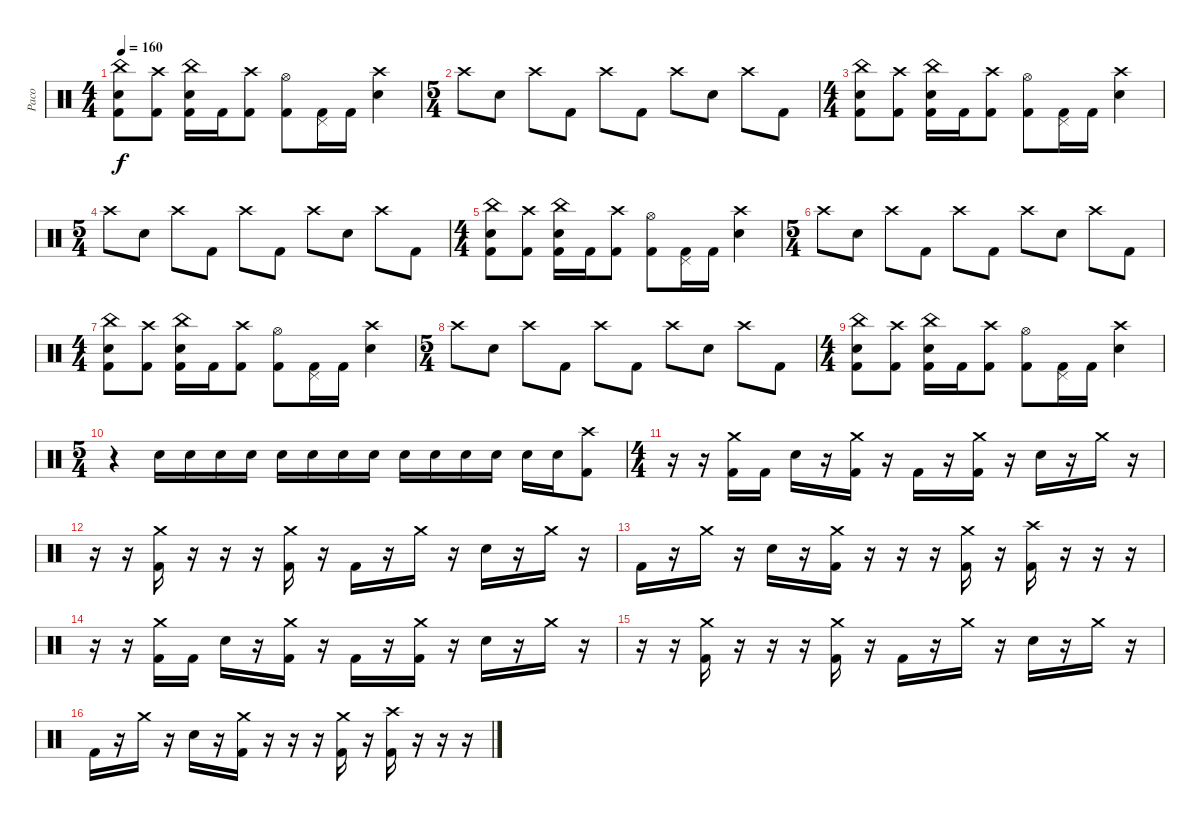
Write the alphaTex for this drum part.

\track ("Paco" "Paco") {instrument percussion}
\staff {score}
\articulation defaults
\ts (4 4)
\tempo 160
\clef neutral
\ks c
("China (hit)" "Electric Snare (hit)" "Kick (hit) 2").8{dy f} ("Crash high (hit)" "Kick (hit) 2").8 ("China (hit)" "Electric Snare (hit)" "Kick (hit) 2").16 "Kick (hit) 2".16 ("Crash high (hit)" "Kick (hit) 2").8 ("Hi-Hat (open)" "Kick (hit) 2").8 ("Pedal Hi-Hat (hit)" "Kick (hit) 2").16 "Kick (hit) 2".16 ("Crash high (hit)" "Electric Snare (hit)").4 |
\ts (5 4)
"Crash high (hit)".8 "Electric Snare (hit)".8 "Crash high (hit)".8 "Kick (hit) 2".8 "Crash high (hit)".8 "Kick (hit) 2".8 "Crash high (hit)".8 "Electric Snare (hit)".8 "Crash high (hit)".8 "Kick (hit) 2".8 |
\ts (4 4)
("China (hit)" "Electric Snare (hit)" "Kick (hit) 2").8 ("Crash high (hit)" "Kick (hit) 2").8 ("China (hit)" "Electric Snare (hit)" "Kick (hit) 2").16 "Kick (hit) 2".16 ("Crash high (hit)" "Kick (hit) 2").8 ("Hi-Hat (open)" "Kick (hit) 2").8 ("Pedal Hi-Hat (hit)" "Kick (hit) 2").16 "Kick (hit) 2".16 ("Crash high (hit)" "Electric Snare (hit)").4 |
\ts (5 4)
"Crash high (hit)".8 "Electric Snare (hit)".8 "Crash high (hit)".8 "Kick (hit) 2".8 "Crash high (hit)".8 "Kick (hit) 2".8 "Crash high (hit)".8 "Electric Snare (hit)".8 "Crash high (hit)".8 "Kick (hit) 2".8 |
\ts (4 4)
("China (hit)" "Electric Snare (hit)" "Kick (hit) 2").8 ("Crash high (hit)" "Kick (hit) 2").8 ("China (hit)" "Electric Snare (hit)" "Kick (hit) 2").16 "Kick (hit) 2".16 ("Crash high (hit)" "Kick (hit) 2").8 ("Hi-Hat (open)" "Kick (hit) 2").8 ("Pedal Hi-Hat (hit)" "Kick (hit) 2").16 "Kick (hit) 2".16 ("Crash high (hit)" "Electric Snare (hit)").4 |
\ts (5 4)
"Crash high (hit)".8 "Electric Snare (hit)".8 "Crash high (hit)".8 "Kick (hit) 2".8 "Crash high (hit)".8 "Kick (hit) 2".8 "Crash high (hit)".8 "Electric Snare (hit)".8 "Crash high (hit)".8 "Kick (hit) 2".8 |
\ts (4 4)
("China (hit)" "Electric Snare (hit)" "Kick (hit) 2").8 ("Crash high (hit)" "Kick (hit) 2").8 ("China (hit)" "Electric Snare (hit)" "Kick (hit) 2").16 "Kick (hit) 2".16 ("Crash high (hit)" "Kick (hit) 2").8 ("Hi-Hat (open)" "Kick (hit) 2").8 ("Pedal Hi-Hat (hit)" "Kick (hit) 2").16 "Kick (hit) 2".16 ("Crash high (hit)" "Electric Snare (hit)").4 |
\ts (5 4)
"Crash high (hit)".8 "Electric Snare (hit)".8 "Crash high (hit)".8 "Kick (hit) 2".8 "Crash high (hit)".8 "Kick (hit) 2".8 "Crash high (hit)".8 "Electric Snare (hit)".8 "Crash high (hit)".8 "Kick (hit) 2".8 |
\ts (4 4)
("China (hit)" "Electric Snare (hit)" "Kick (hit) 2").8 ("Crash high (hit)" "Kick (hit) 2").8 ("China (hit)" "Electric Snare (hit)" "Kick (hit) 2").16 "Kick (hit) 2".16 ("Crash high (hit)" "Kick (hit) 2").8 ("Hi-Hat (open)" "Kick (hit) 2").8 ("Pedal Hi-Hat (hit)" "Kick (hit) 2").16 "Kick (hit) 2".16 ("Crash high (hit)" "Electric Snare (hit)").4 |
\ts (5 4)
r.4 "Electric Snare (hit)".16 "Electric Snare (hit)".16 "Electric Snare (hit)".16 "Electric Snare (hit)".16 "Electric Snare (hit)".16 "Electric Snare (hit)".16 "Electric Snare (hit)".16 "Electric Snare (hit)".16 "Electric Snare (hit)".16 "Electric Snare (hit)".16 "Electric Snare (hit)".16 "Electric Snare (hit)".16 "Electric Snare (hit)".16 "Electric Snare (hit)".16 ("Crash high (hit)" "Kick (hit) 2").8 |
\ts (4 4)
r.16 r.16 ("Crash medium (hit)" "Kick (hit) 2").16 "Kick (hit) 2".16 "Electric Snare (hit)".16 r.16 ("Crash medium (hit)" "Kick (hit) 2").16 r.16 "Kick (hit) 2".16 r.16 ("Crash medium (hit)" "Kick (hit) 2").16 r.16 "Electric Snare (hit)".16 r.16 "Crash medium (hit)".16 r.16 |
r.16 r.16 ("Crash medium (hit)" "Kick (hit) 2").16 r.16 r.16 r.16 ("Crash medium (hit)" "Kick (hit) 2").16 r.16 "Kick (hit) 2".16 r.16 "Crash medium (hit)".16 r.16 "Electric Snare (hit)".16 r.16 "Crash medium (hit)".16 r.16 |
"Kick (hit) 2".16 r.16 "Crash medium (hit)".16 r.16 "Electric Snare (hit)".16 r.16 ("Crash medium (hit)" "Kick (hit) 2").16 r.16 r.16 r.16 ("Crash medium (hit)" "Kick (hit) 2").16 r.16 ("Crash high (hit)" "Kick (hit) 2").16 r.16 r.16 r.16 |
r.16 r.16 ("Crash medium (hit)" "Kick (hit) 2").16 "Kick (hit) 2".16 "Electric Snare (hit)".16 r.16 ("Crash medium (hit)" "Kick (hit) 2").16 r.16 "Kick (hit) 2".16 r.16 ("Crash medium (hit)" "Kick (hit) 2").16 r.16 "Electric Snare (hit)".16 r.16 "Crash medium (hit)".16 r.16 |
r.16 r.16 ("Crash medium (hit)" "Kick (hit) 2").16 r.16 r.16 r.16 ("Crash medium (hit)" "Kick (hit) 2").16 r.16 "Kick (hit) 2".16 r.16 "Crash medium (hit)".16 r.16 "Electric Snare (hit)".16 r.16 "Crash medium (hit)".16 r.16 |
"Kick (hit) 2".16 r.16 "Crash medium (hit)".16 r.16 "Electric Snare (hit)".16 r.16 ("Crash medium (hit)" "Kick (hit) 2").16 r.16 r.16 r.16 ("Crash medium (hit)" "Kick (hit) 2").16 r.16 ("Crash high (hit)" "Kick (hit) 2").16 r.16 r.16 r.16
